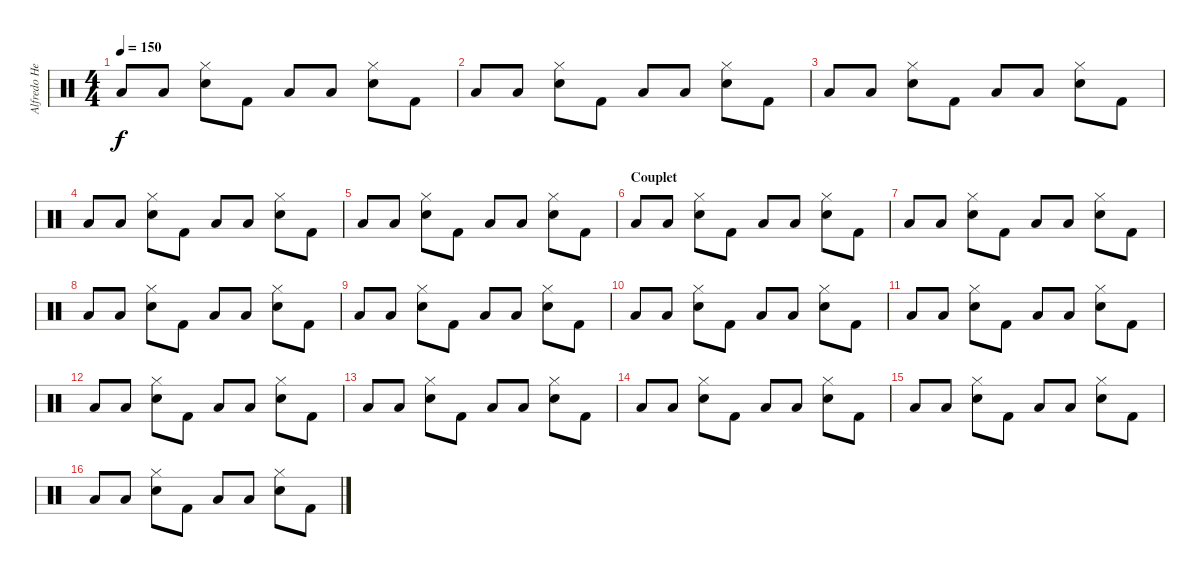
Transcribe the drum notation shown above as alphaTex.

\track ("Alfredo Hernandez" "Alfredo He") {instrument percussion}
\staff {score}
\articulation defaults
\ts (4 4)
\tempo 150
\clef neutral
\ks c "Low Tom (hit)".8{dy f} "Low Tom (hit)".8
("Snare (hit) 2" "Hi-Hat (closed)").8 "Kick (hit) 2".8 "Low Tom (hit)".8 "Low Tom (hit)".8 ("Snare (hit) 2" "Hi-Hat (closed)").8 "Kick (hit) 2".8 |
"Low Tom (hit)".8 "Low Tom (hit)".8 ("Snare (hit) 2" "Hi-Hat (closed)").8 "Kick (hit) 2".8 "Low Tom (hit)".8 "Low Tom (hit)".8 ("Snare (hit) 2" "Hi-Hat (closed)").8 "Kick (hit) 2".8 |
"Low Tom (hit)".8 "Low Tom (hit)".8 ("Snare (hit) 2" "Hi-Hat (closed)").8 "Kick (hit) 2".8 "Low Tom (hit)".8 "Low Tom (hit)".8 ("Snare (hit) 2" "Hi-Hat (closed)").8 "Kick (hit) 2".8 |
"Low Tom (hit)".8 "Low Tom (hit)".8 ("Snare (hit) 2" "Hi-Hat (closed)").8 "Kick (hit) 2".8 "Low Tom (hit)".8 "Low Tom (hit)".8 ("Snare (hit) 2" "Hi-Hat (closed)").8 "Kick (hit) 2".8 |
"Low Tom (hit)".8 "Low Tom (hit)".8 ("Snare (hit) 2" "Hi-Hat (closed)").8 "Kick (hit) 2".8 "Low Tom (hit)".8 "Low Tom (hit)".8 ("Snare (hit) 2" "Hi-Hat (closed)").8 "Kick (hit) 2".8 |
\section ("" "Couplet")
"Low Tom (hit)".8 "Low Tom (hit)".8 ("Snare (hit) 2" "Hi-Hat (closed)").8 "Kick (hit) 2".8 "Low Tom (hit)".8 "Low Tom (hit)".8 ("Snare (hit) 2" "Hi-Hat (closed)").8 "Kick (hit) 2".8 |
"Low Tom (hit)".8 "Low Tom (hit)".8 ("Snare (hit) 2" "Hi-Hat (closed)").8 "Kick (hit) 2".8 "Low Tom (hit)".8 "Low Tom (hit)".8 ("Snare (hit) 2" "Hi-Hat (closed)").8 "Kick (hit) 2".8 |
"Low Tom (hit)".8 "Low Tom (hit)".8 ("Snare (hit) 2" "Hi-Hat (closed)").8 "Kick (hit) 2".8 "Low Tom (hit)".8 "Low Tom (hit)".8 ("Snare (hit) 2" "Hi-Hat (closed)").8 "Kick (hit) 2".8 |
"Low Tom (hit)".8 "Low Tom (hit)".8 ("Snare (hit) 2" "Hi-Hat (closed)").8 "Kick (hit) 2".8 "Low Tom (hit)".8 "Low Tom (hit)".8 ("Snare (hit) 2" "Hi-Hat (closed)").8 "Kick (hit) 2".8 |
"Low Tom (hit)".8 "Low Tom (hit)".8 ("Snare (hit) 2" "Hi-Hat (closed)").8 "Kick (hit) 2".8 "Low Tom (hit)".8 "Low Tom (hit)".8 ("Snare (hit) 2" "Hi-Hat (closed)").8 "Kick (hit) 2".8 |
"Low Tom (hit)".8 "Low Tom (hit)".8 ("Snare (hit) 2" "Hi-Hat (closed)").8 "Kick (hit) 2".8 "Low Tom (hit)".8 "Low Tom (hit)".8 ("Snare (hit) 2" "Hi-Hat (closed)").8 "Kick (hit) 2".8 |
"Low Tom (hit)".8 "Low Tom (hit)".8 ("Snare (hit) 2" "Hi-Hat (closed)").8 "Kick (hit) 2".8 "Low Tom (hit)".8 "Low Tom (hit)".8 ("Snare (hit) 2" "Hi-Hat (closed)").8 "Kick (hit) 2".8 |
"Low Tom (hit)".8 "Low Tom (hit)".8 ("Snare (hit) 2" "Hi-Hat (closed)").8 "Kick (hit) 2".8 "Low Tom (hit)".8 "Low Tom (hit)".8 ("Snare (hit) 2" "Hi-Hat (closed)").8 "Kick (hit) 2".8 |
"Low Tom (hit)".8 "Low Tom (hit)".8 ("Snare (hit) 2" "Hi-Hat (closed)").8 "Kick (hit) 2".8 "Low Tom (hit)".8 "Low Tom (hit)".8 ("Snare (hit) 2" "Hi-Hat (closed)").8 "Kick (hit) 2".8 |
"Low Tom (hit)".8 "Low Tom (hit)".8 ("Snare (hit) 2" "Hi-Hat (closed)").8 "Kick (hit) 2".8 "Low Tom (hit)".8 "Low Tom (hit)".8 ("Snare (hit) 2" "Hi-Hat (closed)").8 "Kick (hit) 2".8 |
"Low Tom (hit)".8 "Low Tom (hit)".8 ("Snare (hit) 2" "Hi-Hat (closed)").8 "Kick (hit) 2".8 "Low Tom (hit)".8 "Low Tom (hit)".8 ("Snare (hit) 2" "Hi-Hat (closed)").8 "Kick (hit) 2".8
